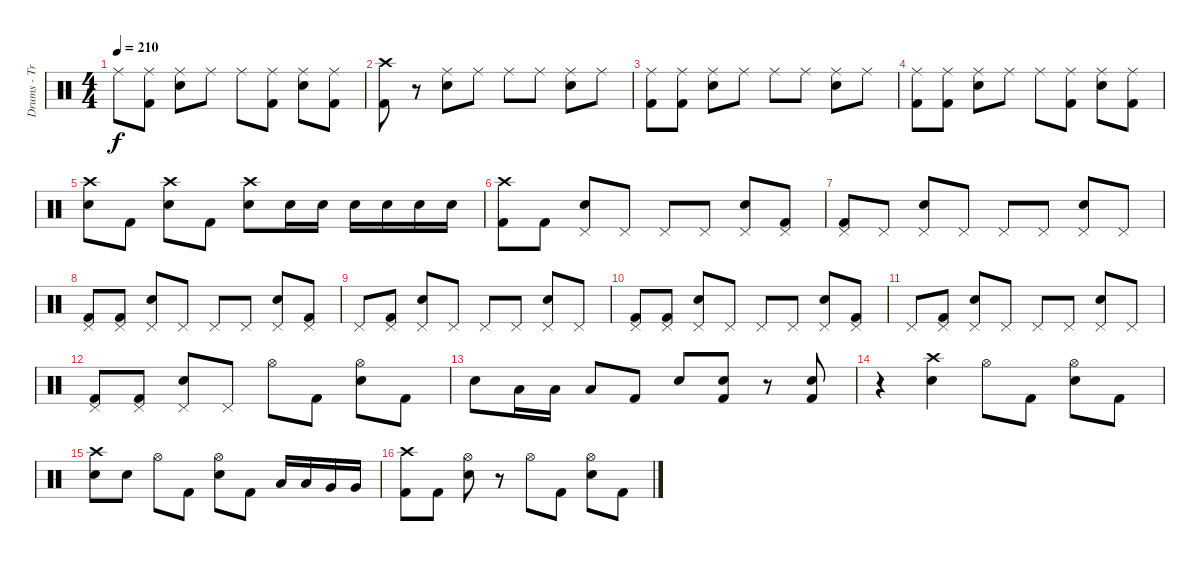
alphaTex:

\track ("Drums - Travis Barker" "Drums - Tr") {instrument percussion}
\staff {score}
\articulation defaults
\ts (4 4)
\tempo 210
\clef neutral
\ks c "Ride (middle)".8{dy f}
("Ride (middle)" "Kick (hit) 2").8 ("Ride (middle)" "Electric Snare (hit)").8 "Ride (middle)".8 "Ride (middle)".8 ("Ride (middle)" "Kick (hit) 2").8 ("Ride (middle)" "Electric Snare (hit)").8 ("Ride (middle)" "Kick (hit) 2").8 |
("Crash high (hit)" "Kick (hit) 2").8 r.8 ("Ride (middle)" "Electric Snare (hit)").8 "Ride (middle)".8 "Ride (middle)".8 "Ride (middle)".8 ("Ride (middle)" "Electric Snare (hit)").8 "Ride (middle)".8 |
("Ride (middle)" "Kick (hit) 2").8 ("Ride (middle)" "Kick (hit) 2").8 ("Ride (middle)" "Electric Snare (hit)").8 "Ride (middle)".8 "Ride (middle)".8 "Ride (middle)".8 ("Ride (middle)" "Electric Snare (hit)").8 "Ride (middle)".8 |
("Ride (middle)" "Kick (hit) 2").8 ("Ride (middle)" "Kick (hit) 2").8 ("Ride (middle)" "Electric Snare (hit)").8 "Ride (middle)".8 "Ride (middle)".8 ("Ride (middle)" "Kick (hit) 2").8 ("Ride (middle)" "Electric Snare (hit)").8 ("Ride (middle)" "Kick (hit) 2").8 |
("Crash high (hit)" "Snare (hit) 2").8 "Kick (hit) 2".8 ("Crash high (hit)" "Electric Snare (hit)").8 "Kick (hit) 2".8 ("Crash high (hit)" "Electric Snare (hit)").8 "Electric Snare (hit)".16 "Electric Snare (hit)".16 "Electric Snare (hit)".16 "Electric Snare (hit)".16 "Electric Snare (hit)".16 "Electric Snare (hit)".16 |
("Crash high (hit)" "Kick (hit) 2").8 "Kick (hit) 2".8 ("Pedal Hi-Hat (hit)" "Electric Snare (hit)").8 "Pedal Hi-Hat (hit)".8 "Pedal Hi-Hat (hit)".8 "Pedal Hi-Hat (hit)".8 ("Pedal Hi-Hat (hit)" "Electric Snare (hit)").8 ("Pedal Hi-Hat (hit)" "Kick (hit) 2").8 |
("Pedal Hi-Hat (hit)" "Kick (hit) 2").8 "Pedal Hi-Hat (hit)".8 ("Pedal Hi-Hat (hit)" "Electric Snare (hit)").8 "Pedal Hi-Hat (hit)".8 "Pedal Hi-Hat (hit)".8 "Pedal Hi-Hat (hit)".8 ("Pedal Hi-Hat (hit)" "Electric Snare (hit)").8 "Pedal Hi-Hat (hit)".8 |
("Pedal Hi-Hat (hit)" "Kick (hit) 2").8 ("Pedal Hi-Hat (hit)" "Kick (hit) 2").8 ("Pedal Hi-Hat (hit)" "Electric Snare (hit)").8 "Pedal Hi-Hat (hit)".8 "Pedal Hi-Hat (hit)".8 "Pedal Hi-Hat (hit)".8 ("Pedal Hi-Hat (hit)" "Electric Snare (hit)").8 ("Pedal Hi-Hat (hit)" "Kick (hit) 2").8 |
"Pedal Hi-Hat (hit)".8 ("Pedal Hi-Hat (hit)" "Kick (hit) 2").8 ("Pedal Hi-Hat (hit)" "Electric Snare (hit)").8 "Pedal Hi-Hat (hit)".8 "Pedal Hi-Hat (hit)".8 "Pedal Hi-Hat (hit)".8 ("Pedal Hi-Hat (hit)" "Electric Snare (hit)").8 "Pedal Hi-Hat (hit)".8 |
("Pedal Hi-Hat (hit)" "Kick (hit) 2").8 ("Pedal Hi-Hat (hit)" "Kick (hit) 2").8 ("Pedal Hi-Hat (hit)" "Electric Snare (hit)").8 "Pedal Hi-Hat (hit)".8 "Pedal Hi-Hat (hit)".8 "Pedal Hi-Hat (hit)".8 ("Pedal Hi-Hat (hit)" "Electric Snare (hit)").8 ("Pedal Hi-Hat (hit)" "Kick (hit) 2").8 |
"Pedal Hi-Hat (hit)".8 ("Pedal Hi-Hat (hit)" "Kick (hit) 2").8 ("Pedal Hi-Hat (hit)" "Electric Snare (hit)").8 "Pedal Hi-Hat (hit)".8 "Pedal Hi-Hat (hit)".8 "Pedal Hi-Hat (hit)".8 ("Pedal Hi-Hat (hit)" "Electric Snare (hit)").8 "Pedal Hi-Hat (hit)".8 |
("Pedal Hi-Hat (hit)" "Kick (hit) 2").8 ("Pedal Hi-Hat (hit)" "Kick (hit) 2").8 ("Pedal Hi-Hat (hit)" "Electric Snare (hit)").8 "Pedal Hi-Hat (hit)".8 "Hi-Hat (open)".8 "Kick (hit) 2".8 ("Hi-Hat (open)" "Electric Snare (hit)").8 "Kick (hit) 2".8 |
"Electric Snare (hit)".8 "Low Tom (hit)".16 "Low Tom (hit)".16 "Low Tom (hit)".8 "Kick (hit) 2".8 "Electric Snare (hit)".8 ("Snare (hit)"{x} "Kick (hit) 2").8 r.8 ("Snare (hit)"{x} "Kick (hit) 2").8 |
r.4 ("Crash high (hit)" "Electric Snare (hit)").4 "Hi-Hat (open)".8 "Kick (hit) 2".8 ("Hi-Hat (open)" "Electric Snare (hit)").8 "Kick (hit) 2".8 |
("Crash high (hit)" "Electric Snare (hit)").8 "Electric Snare (hit)".8 "Hi-Hat (open)".8 "Kick (hit) 2".8 ("Hi-Hat (open)" "Electric Snare (hit)").8 "Kick (hit) 2".8 "Low Tom (hit)".16 "Low Tom (hit)".16 "Very Low Tom (hit)".16 "Very Low Tom (hit)".16 |
("Crash high (hit)" "Kick (hit) 2").8 "Kick (hit) 2".8 ("Hi-Hat (open)" "Electric Snare (hit)").8 r.8 "Hi-Hat (open)".8 "Kick (hit) 2".8 ("Hi-Hat (open)" "Electric Snare (hit)").8 "Kick (hit) 2".8
